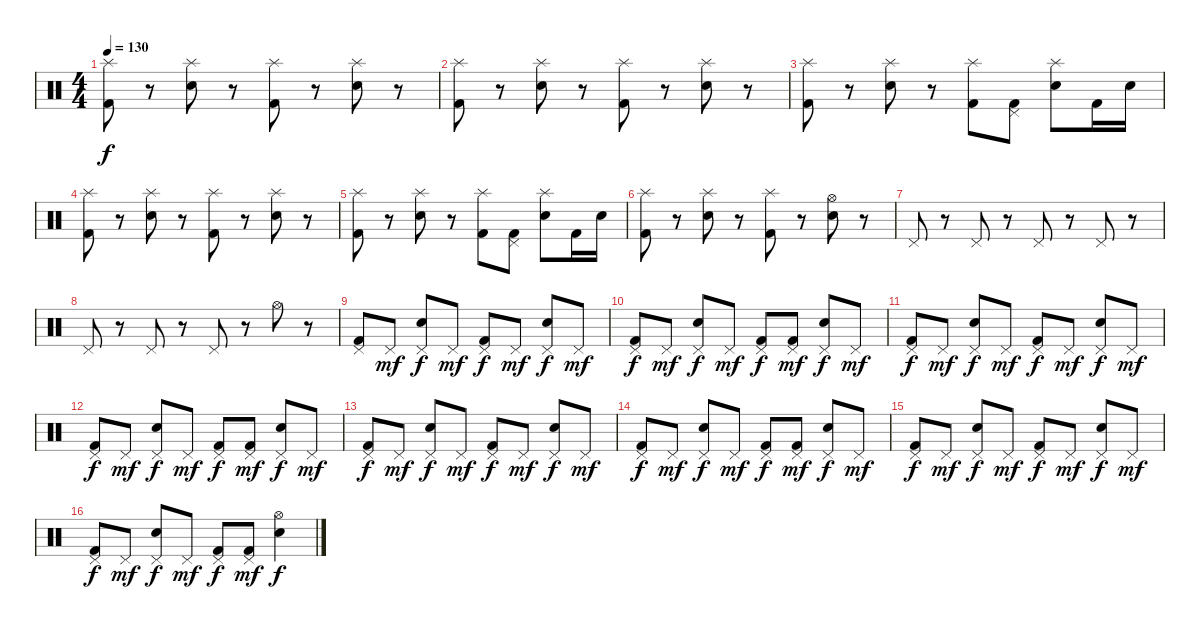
\track "" {instrument percussion}
\staff {score}
\articulation defaults
\ts (4 4)
\tempo 130
\clef neutral
\ks c
("Splash (hit)" "Kick (hit) 2").8{dy f} r.8 ("Splash (hit)" "Snare (hit) 2").8 r.8 ("Splash (hit)" "Kick (hit) 2").8 r.8 ("Splash (hit)" "Snare (hit) 2").8 r.8 |
("Splash (hit)" "Kick (hit) 2").8 r.8 ("Splash (hit)" "Snare (hit) 2").8 r.8 ("Splash (hit)" "Kick (hit) 2").8 r.8 ("Splash (hit)" "Snare (hit) 2").8 r.8 |
("Splash (hit)" "Kick (hit) 2").8 r.8 ("Splash (hit)" "Snare (hit) 2").8 r.8 ("Splash (hit)" "Kick (hit) 2").8 ("Pedal Hi-Hat (hit)" "Kick (hit) 2").8 ("Splash (hit)" "Snare (hit) 2").8 "Kick (hit) 2".16 "Snare (hit) 2".16 |
("Splash (hit)" "Kick (hit) 2").8 r.8 ("Splash (hit)" "Snare (hit) 2").8 r.8 ("Splash (hit)" "Kick (hit) 2").8 r.8 ("Splash (hit)" "Snare (hit) 2").8 r.8 |
("Splash (hit)" "Kick (hit) 2").8 r.8 ("Splash (hit)" "Snare (hit) 2").8 r.8 ("Splash (hit)" "Kick (hit) 2").8 ("Pedal Hi-Hat (hit)" "Kick (hit) 2").8 ("Splash (hit)" "Snare (hit) 2").8 "Kick (hit) 2".16 "Snare (hit) 2".16 |
("Splash (hit)" "Kick (hit) 2").8 r.8 ("Splash (hit)" "Snare (hit) 2").8 r.8 ("Splash (hit)" "Kick (hit) 2").8 r.8 ("Hi-Hat (open)" "Snare (hit) 2").8 r.8 |
"Pedal Hi-Hat (hit)".8 r.8 "Pedal Hi-Hat (hit)".8 r.8 "Pedal Hi-Hat (hit)".8 r.8 "Pedal Hi-Hat (hit)".8 r.8 |
"Pedal Hi-Hat (hit)".8 r.8 "Pedal Hi-Hat (hit)".8 r.8 "Pedal Hi-Hat (hit)".8 r.8 "Hi-Hat (open)".8 r.8 |
("Pedal Hi-Hat (hit)" "Kick (hit) 2").8 "Pedal Hi-Hat (hit)".8{dy mf} ("Pedal Hi-Hat (hit)" "Snare (hit) 2").8{dy f} "Pedal Hi-Hat (hit)".8{dy mf} ("Pedal Hi-Hat (hit)" "Kick (hit) 2").8{dy f} "Pedal Hi-Hat (hit)".8{dy mf} ("Pedal Hi-Hat (hit)" "Snare (hit) 2").8{dy f} "Pedal Hi-Hat (hit)".8{dy mf} |
("Pedal Hi-Hat (hit)" "Kick (hit) 2").8{dy f} "Pedal Hi-Hat (hit)".8{dy mf} ("Pedal Hi-Hat (hit)" "Snare (hit) 2").8{dy f} "Pedal Hi-Hat (hit)".8{dy mf} ("Pedal Hi-Hat (hit)" "Kick (hit) 2").8{dy f} ("Kick (hit) 2" "Pedal Hi-Hat (hit)").8{dy mf} ("Pedal Hi-Hat (hit)" "Snare (hit) 2").8{dy f} "Pedal Hi-Hat (hit)".8{dy mf} |
("Pedal Hi-Hat (hit)" "Kick (hit) 2").8{dy f} "Pedal Hi-Hat (hit)".8{dy mf} ("Pedal Hi-Hat (hit)" "Snare (hit) 2").8{dy f} "Pedal Hi-Hat (hit)".8{dy mf} ("Pedal Hi-Hat (hit)" "Kick (hit) 2").8{dy f} "Pedal Hi-Hat (hit)".8{dy mf} ("Pedal Hi-Hat (hit)" "Snare (hit) 2").8{dy f} "Pedal Hi-Hat (hit)".8{dy mf} |
("Pedal Hi-Hat (hit)" "Kick (hit) 2").8{dy f} "Pedal Hi-Hat (hit)".8{dy mf} ("Pedal Hi-Hat (hit)" "Snare (hit) 2").8{dy f} "Pedal Hi-Hat (hit)".8{dy mf} ("Pedal Hi-Hat (hit)" "Kick (hit) 2").8{dy f} ("Kick (hit) 2" "Pedal Hi-Hat (hit)").8{dy mf} ("Pedal Hi-Hat (hit)" "Snare (hit) 2").8{dy f} "Pedal Hi-Hat (hit)".8{dy mf} |
("Pedal Hi-Hat (hit)" "Kick (hit) 2").8{dy f} "Pedal Hi-Hat (hit)".8{dy mf} ("Pedal Hi-Hat (hit)" "Snare (hit) 2").8{dy f} "Pedal Hi-Hat (hit)".8{dy mf} ("Pedal Hi-Hat (hit)" "Kick (hit) 2").8{dy f} "Pedal Hi-Hat (hit)".8{dy mf} ("Pedal Hi-Hat (hit)" "Snare (hit) 2").8{dy f} "Pedal Hi-Hat (hit)".8{dy mf} |
("Pedal Hi-Hat (hit)" "Kick (hit) 2").8{dy f} "Pedal Hi-Hat (hit)".8{dy mf} ("Pedal Hi-Hat (hit)" "Snare (hit) 2").8{dy f} "Pedal Hi-Hat (hit)".8{dy mf} ("Pedal Hi-Hat (hit)" "Kick (hit) 2").8{dy f} ("Kick (hit) 2" "Pedal Hi-Hat (hit)").8{dy mf} ("Pedal Hi-Hat (hit)" "Snare (hit) 2").8{dy f} "Pedal Hi-Hat (hit)".8{dy mf} |
("Pedal Hi-Hat (hit)" "Kick (hit) 2").8{dy f} "Pedal Hi-Hat (hit)".8{dy mf} ("Pedal Hi-Hat (hit)" "Snare (hit) 2").8{dy f} "Pedal Hi-Hat (hit)".8{dy mf} ("Pedal Hi-Hat (hit)" "Kick (hit) 2").8{dy f} "Pedal Hi-Hat (hit)".8{dy mf} ("Pedal Hi-Hat (hit)" "Snare (hit) 2").8{dy f} "Pedal Hi-Hat (hit)".8{dy mf} |
("Pedal Hi-Hat (hit)" "Kick (hit) 2").8{dy f} "Pedal Hi-Hat (hit)".8{dy mf} ("Pedal Hi-Hat (hit)" "Snare (hit) 2").8{dy f} "Pedal Hi-Hat (hit)".8{dy mf} ("Pedal Hi-Hat (hit)" "Kick (hit) 2").8{dy f} ("Kick (hit) 2" "Pedal Hi-Hat (hit)").8{dy mf} ("Hi-Hat (open)" "Snare (hit) 2").4{dy f}
